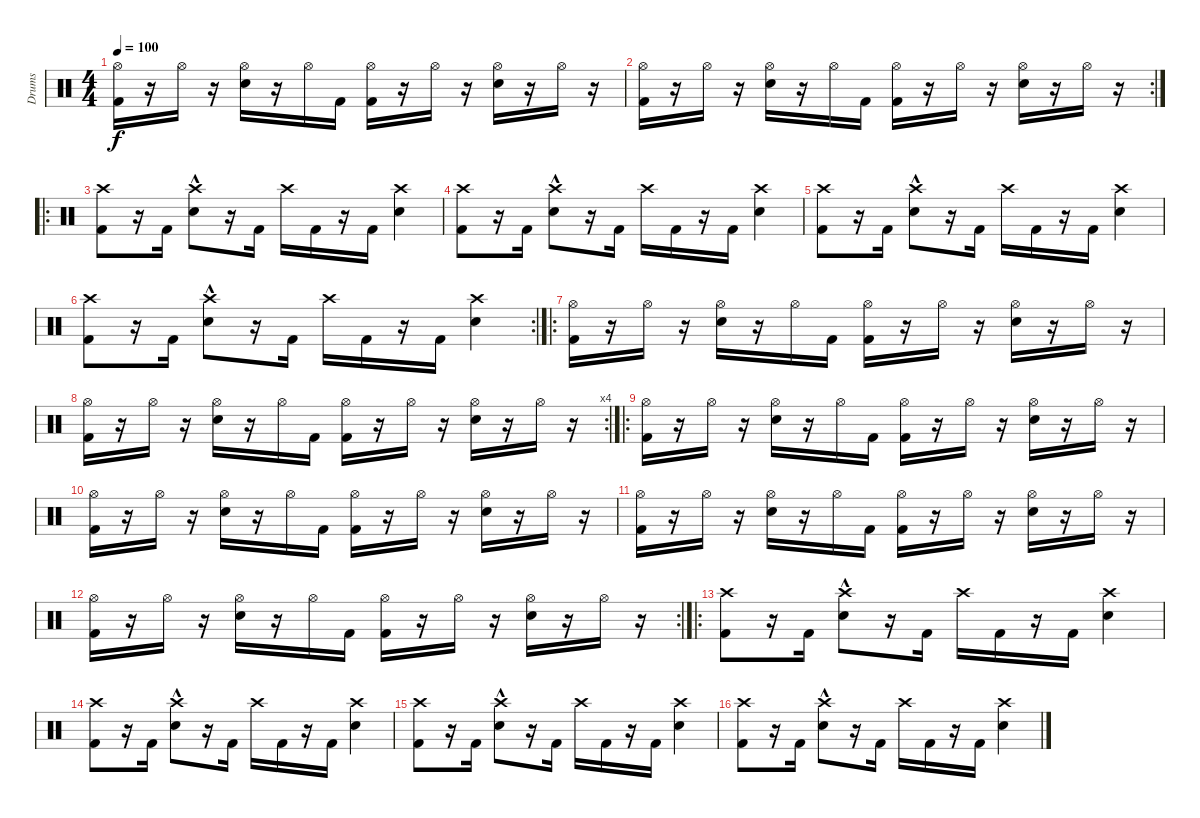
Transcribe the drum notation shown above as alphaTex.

\track ("Drums" "Drums") {instrument percussion}
\staff {score}
\articulation defaults
\ts (4 4)
\tempo 100
\clef neutral
\ks c
("Kick (hit) 2" "Hi-Hat (open)").16{dy f} r.16 "Hi-Hat (open)".16 r.16 ("Snare (hit) 2" "Hi-Hat (open)").16 r.16 "Hi-Hat (open)".16 "Kick (hit) 2".16 ("Kick (hit) 2" "Hi-Hat (open)").16 r.16 "Hi-Hat (open)".16 r.16 ("Snare (hit) 2" "Hi-Hat (open)").16 r.16 "Hi-Hat (open)".16 r.16 |
\rc 2
("Kick (hit) 2" "Hi-Hat (open)").16 r.16 "Hi-Hat (open)".16 r.16 ("Snare (hit) 2" "Hi-Hat (open)").16 r.16 "Hi-Hat (open)".16 "Kick (hit) 2".16 ("Kick (hit) 2" "Hi-Hat (open)").16 r.16 "Hi-Hat (open)".16 r.16 ("Snare (hit) 2" "Hi-Hat (open)").16 r.16 "Hi-Hat (open)".16 r.16 |
\ro
("Kick (hit) 2" "Crash high (hit)").8 r.16 "Kick (hit) 2".16 ("Snare (hit) 2"{hac} "Crash high (hit)").8 r.16 "Kick (hit) 2".16 "Crash high (hit)".16 "Kick (hit) 2".16 r.16 "Kick (hit) 2".16 ("Snare (hit) 2" "Crash high (hit)").4 |
("Kick (hit) 2" "Crash high (hit)").8 r.16 "Kick (hit) 2".16 ("Snare (hit) 2"{hac} "Crash high (hit)").8 r.16 "Kick (hit) 2".16 "Crash high (hit)".16 "Kick (hit) 2".16 r.16 "Kick (hit) 2".16 ("Snare (hit) 2" "Crash high (hit)").4 |
("Kick (hit) 2" "Crash high (hit)").8 r.16 "Kick (hit) 2".16 ("Snare (hit) 2"{hac} "Crash high (hit)").8 r.16 "Kick (hit) 2".16 "Crash high (hit)".16 "Kick (hit) 2".16 r.16 "Kick (hit) 2".16 ("Snare (hit) 2" "Crash high (hit)").4 |
\rc 2
("Kick (hit) 2" "Crash high (hit)").8 r.16 "Kick (hit) 2".16 ("Snare (hit) 2"{hac} "Crash high (hit)").8 r.16 "Kick (hit) 2".16 "Crash high (hit)".16 "Kick (hit) 2".16 r.16 "Kick (hit) 2".16 ("Snare (hit) 2" "Crash high (hit)").4 |
\ro
("Kick (hit) 2" "Hi-Hat (open)").16 r.16 "Hi-Hat (open)".16 r.16 ("Snare (hit) 2" "Hi-Hat (open)").16 r.16 "Hi-Hat (open)".16 "Kick (hit) 2".16 ("Kick (hit) 2" "Hi-Hat (open)").16 r.16 "Hi-Hat (open)".16 r.16 ("Snare (hit) 2" "Hi-Hat (open)").16 r.16 "Hi-Hat (open)".16 r.16 |
\rc 4
("Kick (hit) 2" "Hi-Hat (open)").16 r.16 "Hi-Hat (open)".16 r.16 ("Snare (hit) 2" "Hi-Hat (open)").16 r.16 "Hi-Hat (open)".16 "Kick (hit) 2".16 ("Kick (hit) 2" "Hi-Hat (open)").16 r.16 "Hi-Hat (open)".16 r.16 ("Snare (hit) 2" "Hi-Hat (open)").16 r.16 "Hi-Hat (open)".16 r.16 |
\ro
("Kick (hit) 2" "Hi-Hat (open)").16 r.16 "Hi-Hat (open)".16 r.16 ("Snare (hit) 2" "Hi-Hat (open)").16 r.16 "Hi-Hat (open)".16 "Kick (hit) 2".16 ("Kick (hit) 2" "Hi-Hat (open)").16 r.16 "Hi-Hat (open)".16 r.16 ("Snare (hit) 2" "Hi-Hat (open)").16 r.16 "Hi-Hat (open)".16 r.16 |
("Kick (hit) 2" "Hi-Hat (open)").16 r.16 "Hi-Hat (open)".16 r.16 ("Snare (hit) 2" "Hi-Hat (open)").16 r.16 "Hi-Hat (open)".16 "Kick (hit) 2".16 ("Kick (hit) 2" "Hi-Hat (open)").16 r.16 "Hi-Hat (open)".16 r.16 ("Snare (hit) 2" "Hi-Hat (open)").16 r.16 "Hi-Hat (open)".16 r.16 |
("Kick (hit) 2" "Hi-Hat (open)").16 r.16 "Hi-Hat (open)".16 r.16 ("Snare (hit) 2" "Hi-Hat (open)").16 r.16 "Hi-Hat (open)".16 "Kick (hit) 2".16 ("Kick (hit) 2" "Hi-Hat (open)").16 r.16 "Hi-Hat (open)".16 r.16 ("Snare (hit) 2" "Hi-Hat (open)").16 r.16 "Hi-Hat (open)".16 r.16 |
\rc 2
("Kick (hit) 2" "Hi-Hat (open)").16 r.16 "Hi-Hat (open)".16 r.16 ("Snare (hit) 2" "Hi-Hat (open)").16 r.16 "Hi-Hat (open)".16 "Kick (hit) 2".16 ("Kick (hit) 2" "Hi-Hat (open)").16 r.16 "Hi-Hat (open)".16 r.16 ("Snare (hit) 2" "Hi-Hat (open)").16 r.16 "Hi-Hat (open)".16 r.16 |
\ro
("Kick (hit) 2" "Crash high (hit)").8 r.16 "Kick (hit) 2".16 ("Snare (hit) 2"{hac} "Crash high (hit)").8 r.16 "Kick (hit) 2".16 "Crash high (hit)".16 "Kick (hit) 2".16 r.16 "Kick (hit) 2".16 ("Snare (hit) 2" "Crash high (hit)").4 |
("Kick (hit) 2" "Crash high (hit)").8 r.16 "Kick (hit) 2".16 ("Snare (hit) 2"{hac} "Crash high (hit)").8 r.16 "Kick (hit) 2".16 "Crash high (hit)".16 "Kick (hit) 2".16 r.16 "Kick (hit) 2".16 ("Snare (hit) 2" "Crash high (hit)").4 |
("Kick (hit) 2" "Crash high (hit)").8 r.16 "Kick (hit) 2".16 ("Snare (hit) 2"{hac} "Crash high (hit)").8 r.16 "Kick (hit) 2".16 "Crash high (hit)".16 "Kick (hit) 2".16 r.16 "Kick (hit) 2".16 ("Snare (hit) 2" "Crash high (hit)").4 |
("Kick (hit) 2" "Crash high (hit)").8 r.16 "Kick (hit) 2".16 ("Snare (hit) 2"{hac} "Crash high (hit)").8 r.16 "Kick (hit) 2".16 "Crash high (hit)".16 "Kick (hit) 2".16 r.16 "Kick (hit) 2".16 ("Snare (hit) 2" "Crash high (hit)").4
